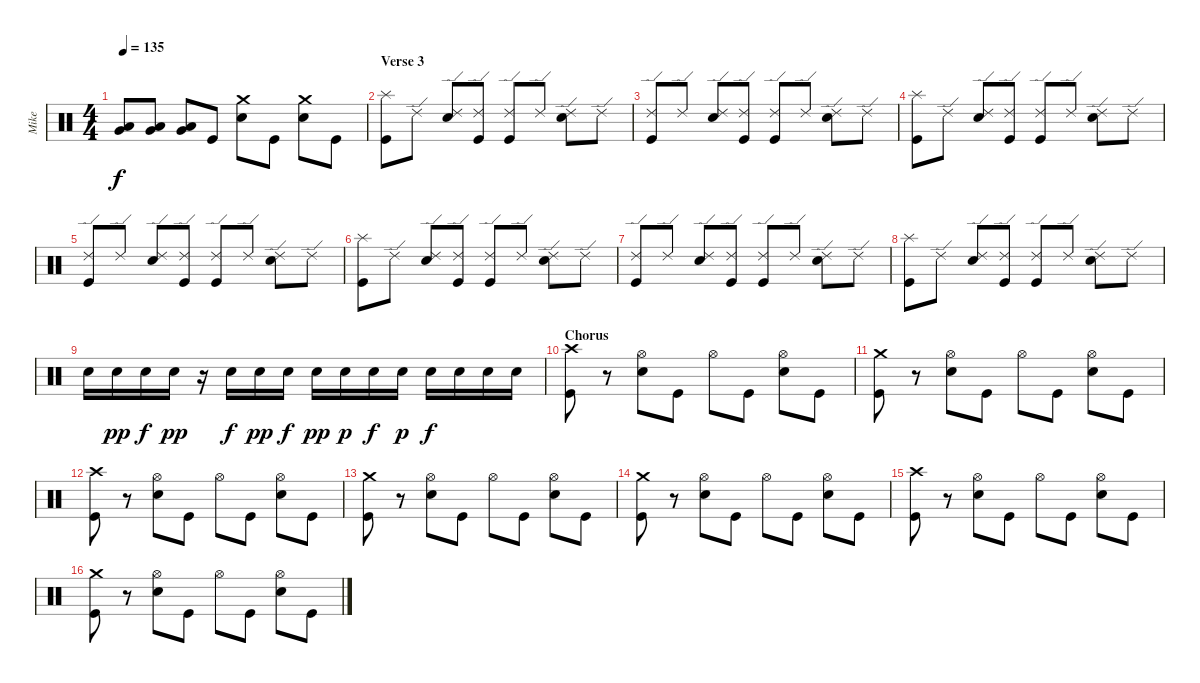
\track ("Mike" "Mike") {instrument percussion}
\staff {score}
\articulation defaults
\ts (4 4)
\tempo 135
\clef neutral
\ks c
("Very Low Tom (hit)" "Low Tom (hit)").8{dy f} ("Very Low Tom (hit)" "Low Tom (hit)").8 ("Very Low Tom (hit)" "Low Tom (hit)").8 "Kick (hit)".8 ("Crash medium (hit)" "Electric Snare (hit)").8 "Kick (hit)".8 ("Crash medium (hit)" "Electric Snare (hit)").8 "Kick (hit)".8 |
\section ("" "Verse 3")
("Splash (hit)" "Kick (hit)").8 "Ride (edge) 2".8 ("Ride (edge) 2" "Electric Snare (hit)").8 ("Ride (edge) 2" "Kick (hit)").8 ("Ride (edge) 2" "Kick (hit)").8 "Ride (edge) 2".8 ("Ride (edge) 2" "Electric Snare (hit)").8 "Ride (edge) 2".8 |
("Ride (edge) 2" "Kick (hit)").8 "Ride (edge) 2".8 ("Ride (edge) 2" "Electric Snare (hit)").8 ("Ride (edge) 2" "Kick (hit)").8 ("Ride (edge) 2" "Kick (hit)").8 "Ride (edge) 2".8 ("Ride (edge) 2" "Electric Snare (hit)").8 "Ride (edge) 2".8 |
("Splash (hit)" "Kick (hit)").8 "Ride (edge) 2".8 ("Ride (edge) 2" "Electric Snare (hit)").8 ("Ride (edge) 2" "Kick (hit)").8 ("Ride (edge) 2" "Kick (hit)").8 "Ride (edge) 2".8 ("Ride (edge) 2" "Electric Snare (hit)").8 "Ride (edge) 2".8 |
("Ride (edge) 2" "Kick (hit)").8 "Ride (edge) 2".8 ("Ride (edge) 2" "Electric Snare (hit)").8 ("Ride (edge) 2" "Kick (hit)").8 ("Ride (edge) 2" "Kick (hit)").8 "Ride (edge) 2".8 ("Ride (edge) 2" "Electric Snare (hit)").8 "Ride (edge) 2".8 |
("Splash (hit)" "Kick (hit)").8 "Ride (edge) 2".8 ("Ride (edge) 2" "Electric Snare (hit)").8 ("Ride (edge) 2" "Kick (hit)").8 ("Ride (edge) 2" "Kick (hit)").8 "Ride (edge) 2".8 ("Ride (edge) 2" "Electric Snare (hit)").8 "Ride (edge) 2".8 |
("Ride (edge) 2" "Kick (hit)").8 "Ride (edge) 2".8 ("Ride (edge) 2" "Electric Snare (hit)").8 ("Ride (edge) 2" "Kick (hit)").8 ("Ride (edge) 2" "Kick (hit)").8 "Ride (edge) 2".8 ("Ride (edge) 2" "Electric Snare (hit)").8 "Ride (edge) 2".8 |
("Splash (hit)" "Kick (hit)").8 "Ride (edge) 2".8 ("Ride (edge) 2" "Electric Snare (hit)").8 ("Ride (edge) 2" "Kick (hit)").8 ("Ride (edge) 2" "Kick (hit)").8 "Ride (edge) 2".8 ("Ride (edge) 2" "Electric Snare (hit)").8 "Ride (edge) 2".8 |
"Electric Snare (hit)".16 "Electric Snare (hit)".16{dy pp} "Electric Snare (hit)".16{dy f} "Electric Snare (hit)".16{dy pp} r.16 "Electric Snare (hit)".16{dy f} "Electric Snare (hit)".16{dy pp} "Electric Snare (hit)".16{dy f} "Electric Snare (hit)".16{dy pp} "Electric Snare (hit)".16{dy p} "Electric Snare (hit)".16{dy f} "Electric Snare (hit)".16{dy p} "Electric Snare (hit)".16{dy f} "Electric Snare (hit)".16 "Electric Snare (hit)".16 "Electric Snare (hit)".16 |
\section ("" "Chorus")
("Crash high (hit)" "Kick (hit)").8 r.8 ("Electric Snare (hit)" "Hi-Hat (open)").8 "Kick (hit)".8 "Hi-Hat (open)".8 "Kick (hit)".8 ("Electric Snare (hit)" "Hi-Hat (open)").8 "Kick (hit)".8 |
("Crash medium (hit)" "Kick (hit)").8 r.8 ("Electric Snare (hit)" "Hi-Hat (open)").8 "Kick (hit)".8 "Hi-Hat (open)".8 "Kick (hit)".8 ("Electric Snare (hit)" "Hi-Hat (open)").8 "Kick (hit)".8 |
("Crash high (hit)" "Kick (hit)").8 r.8 ("Electric Snare (hit)" "Hi-Hat (open)").8 "Kick (hit)".8 "Hi-Hat (open)".8 "Kick (hit)".8 ("Electric Snare (hit)" "Hi-Hat (open)").8 "Kick (hit)".8 |
("Crash medium (hit)" "Kick (hit)").8 r.8 ("Electric Snare (hit)" "Hi-Hat (open)").8 "Kick (hit)".8 "Hi-Hat (open)".8 "Kick (hit)".8 ("Electric Snare (hit)" "Hi-Hat (open)").8 "Kick (hit)".8 |
("Crash medium (hit)" "Kick (hit)").8 r.8 ("Electric Snare (hit)" "Hi-Hat (open)").8 "Kick (hit)".8 "Hi-Hat (open)".8 "Kick (hit)".8 ("Electric Snare (hit)" "Hi-Hat (open)").8 "Kick (hit)".8 |
("Crash high (hit)" "Kick (hit)").8 r.8 ("Electric Snare (hit)" "Hi-Hat (open)").8 "Kick (hit)".8 "Hi-Hat (open)".8 "Kick (hit)".8 ("Electric Snare (hit)" "Hi-Hat (open)").8 "Kick (hit)".8 |
("Crash medium (hit)" "Kick (hit)").8 r.8 ("Electric Snare (hit)" "Hi-Hat (open)").8 "Kick (hit)".8 "Hi-Hat (open)".8 "Kick (hit)".8 ("Electric Snare (hit)" "Hi-Hat (open)").8 "Kick (hit)".8
